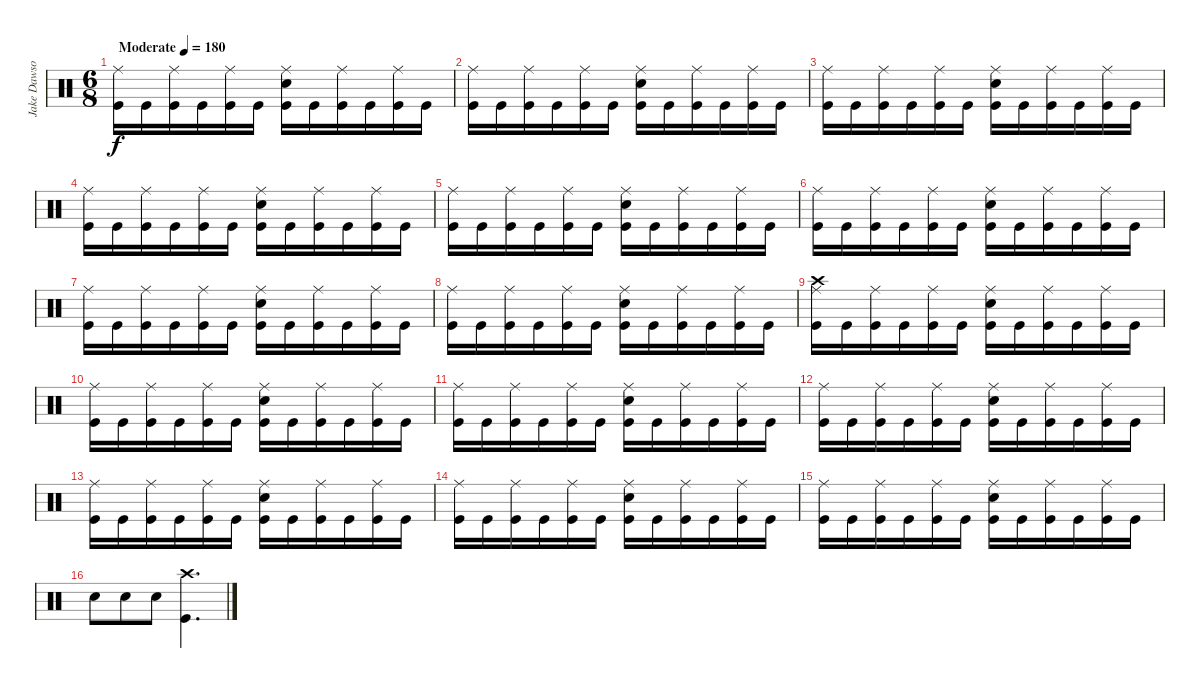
\track ("Jake Dawson" "Jake Dawso") {instrument percussion}
\staff {score}
\articulation defaults
\ts (6 8)
\tempo (180 "Moderate")
\clef neutral
\ks c
("Ride (middle)" "Kick (hit)").16{dy f} "Kick (hit)".16 ("Ride (middle)" "Kick (hit)").16 "Kick (hit)".16 ("Ride (middle)" "Kick (hit)").16 "Kick (hit)".16 ("Ride (middle)" "Snare (hit) 2" "Kick (hit)").16 "Kick (hit)".16 ("Ride (middle)" "Kick (hit)").16 "Kick (hit)".16 ("Ride (middle)" "Kick (hit)").16 "Kick (hit)".16 |
("Ride (middle)" "Kick (hit)").16 "Kick (hit)".16 ("Ride (middle)" "Kick (hit)").16 "Kick (hit)".16 ("Ride (middle)" "Kick (hit)").16 "Kick (hit)".16 ("Ride (middle)" "Snare (hit) 2" "Kick (hit)").16 "Kick (hit)".16 ("Ride (middle)" "Kick (hit)").16 "Kick (hit)".16 ("Ride (middle)" "Kick (hit)").16 "Kick (hit)".16 |
("Ride (middle)" "Kick (hit)").16 "Kick (hit)".16 ("Ride (middle)" "Kick (hit)").16 "Kick (hit)".16 ("Ride (middle)" "Kick (hit)").16 "Kick (hit)".16 ("Ride (middle)" "Snare (hit) 2" "Kick (hit)").16 "Kick (hit)".16 ("Ride (middle)" "Kick (hit)").16 "Kick (hit)".16 ("Ride (middle)" "Kick (hit)").16 "Kick (hit)".16 |
("Ride (middle)" "Kick (hit)").16 "Kick (hit)".16 ("Ride (middle)" "Kick (hit)").16 "Kick (hit)".16 ("Ride (middle)" "Kick (hit)").16 "Kick (hit)".16 ("Ride (middle)" "Snare (hit) 2" "Kick (hit)").16 "Kick (hit)".16 ("Ride (middle)" "Kick (hit)").16 "Kick (hit)".16 ("Ride (middle)" "Kick (hit)").16 "Kick (hit)".16 |
("Ride (middle)" "Kick (hit)").16 "Kick (hit)".16 ("Ride (middle)" "Kick (hit)").16 "Kick (hit)".16 ("Ride (middle)" "Kick (hit)").16 "Kick (hit)".16 ("Ride (middle)" "Snare (hit) 2" "Kick (hit)").16 "Kick (hit)".16 ("Ride (middle)" "Kick (hit)").16 "Kick (hit)".16 ("Ride (middle)" "Kick (hit)").16 "Kick (hit)".16 |
("Ride (middle)" "Kick (hit)").16 "Kick (hit)".16 ("Ride (middle)" "Kick (hit)").16 "Kick (hit)".16 ("Ride (middle)" "Kick (hit)").16 "Kick (hit)".16 ("Ride (middle)" "Snare (hit) 2" "Kick (hit)").16 "Kick (hit)".16 ("Ride (middle)" "Kick (hit)").16 "Kick (hit)".16 ("Ride (middle)" "Kick (hit)").16 "Kick (hit)".16 |
("Ride (middle)" "Kick (hit)").16 "Kick (hit)".16 ("Ride (middle)" "Kick (hit)").16 "Kick (hit)".16 ("Ride (middle)" "Kick (hit)").16 "Kick (hit)".16 ("Ride (middle)" "Snare (hit) 2" "Kick (hit)").16 "Kick (hit)".16 ("Ride (middle)" "Kick (hit)").16 "Kick (hit)".16 ("Ride (middle)" "Kick (hit)").16 "Kick (hit)".16 |
("Ride (middle)" "Kick (hit)").16 "Kick (hit)".16 ("Ride (middle)" "Kick (hit)").16 "Kick (hit)".16 ("Ride (middle)" "Kick (hit)").16 "Kick (hit)".16 ("Ride (middle)" "Snare (hit) 2" "Kick (hit)").16 "Kick (hit)".16 ("Ride (middle)" "Kick (hit)").16 "Kick (hit)".16 ("Ride (middle)" "Kick (hit)").16 "Kick (hit)".16 |
("Crash high (hit)" "Ride (middle)" "Kick (hit)").16 "Kick (hit)".16 ("Ride (middle)" "Kick (hit)").16 "Kick (hit)".16 ("Ride (middle)" "Kick (hit)").16 "Kick (hit)".16 ("Ride (middle)" "Snare (hit) 2" "Kick (hit)").16 "Kick (hit)".16 ("Ride (middle)" "Kick (hit)").16 "Kick (hit)".16 ("Ride (middle)" "Kick (hit)").16 "Kick (hit)".16 |
("Ride (middle)" "Kick (hit)").16 "Kick (hit)".16 ("Ride (middle)" "Kick (hit)").16 "Kick (hit)".16 ("Ride (middle)" "Kick (hit)").16 "Kick (hit)".16 ("Ride (middle)" "Snare (hit) 2" "Kick (hit)").16 "Kick (hit)".16 ("Ride (middle)" "Kick (hit)").16 "Kick (hit)".16 ("Ride (middle)" "Kick (hit)").16 "Kick (hit)".16 |
("Ride (middle)" "Kick (hit)").16 "Kick (hit)".16 ("Ride (middle)" "Kick (hit)").16 "Kick (hit)".16 ("Ride (middle)" "Kick (hit)").16 "Kick (hit)".16 ("Ride (middle)" "Snare (hit) 2" "Kick (hit)").16 "Kick (hit)".16 ("Ride (middle)" "Kick (hit)").16 "Kick (hit)".16 ("Ride (middle)" "Kick (hit)").16 "Kick (hit)".16 |
("Ride (middle)" "Kick (hit)").16 "Kick (hit)".16 ("Ride (middle)" "Kick (hit)").16 "Kick (hit)".16 ("Ride (middle)" "Kick (hit)").16 "Kick (hit)".16 ("Ride (middle)" "Snare (hit) 2" "Kick (hit)").16 "Kick (hit)".16 ("Ride (middle)" "Kick (hit)").16 "Kick (hit)".16 ("Ride (middle)" "Kick (hit)").16 "Kick (hit)".16 |
("Ride (middle)" "Kick (hit)").16 "Kick (hit)".16 ("Ride (middle)" "Kick (hit)").16 "Kick (hit)".16 ("Ride (middle)" "Kick (hit)").16 "Kick (hit)".16 ("Ride (middle)" "Snare (hit) 2" "Kick (hit)").16 "Kick (hit)".16 ("Ride (middle)" "Kick (hit)").16 "Kick (hit)".16 ("Ride (middle)" "Kick (hit)").16 "Kick (hit)".16 |
("Ride (middle)" "Kick (hit)").16 "Kick (hit)".16 ("Ride (middle)" "Kick (hit)").16 "Kick (hit)".16 ("Ride (middle)" "Kick (hit)").16 "Kick (hit)".16 ("Ride (middle)" "Snare (hit) 2" "Kick (hit)").16 "Kick (hit)".16 ("Ride (middle)" "Kick (hit)").16 "Kick (hit)".16 ("Ride (middle)" "Kick (hit)").16 "Kick (hit)".16 |
("Ride (middle)" "Kick (hit)").16 "Kick (hit)".16 ("Ride (middle)" "Kick (hit)").16 "Kick (hit)".16 ("Ride (middle)" "Kick (hit)").16 "Kick (hit)".16 ("Ride (middle)" "Snare (hit) 2" "Kick (hit)").16 "Kick (hit)".16 ("Ride (middle)" "Kick (hit)").16 "Kick (hit)".16 ("Ride (middle)" "Kick (hit)").16 "Kick (hit)".16 |
"Snare (hit) 2".8 "Snare (hit) 2".8 "Snare (hit) 2".8 ("Crash high (hit)" "Kick (hit)").4{d}
